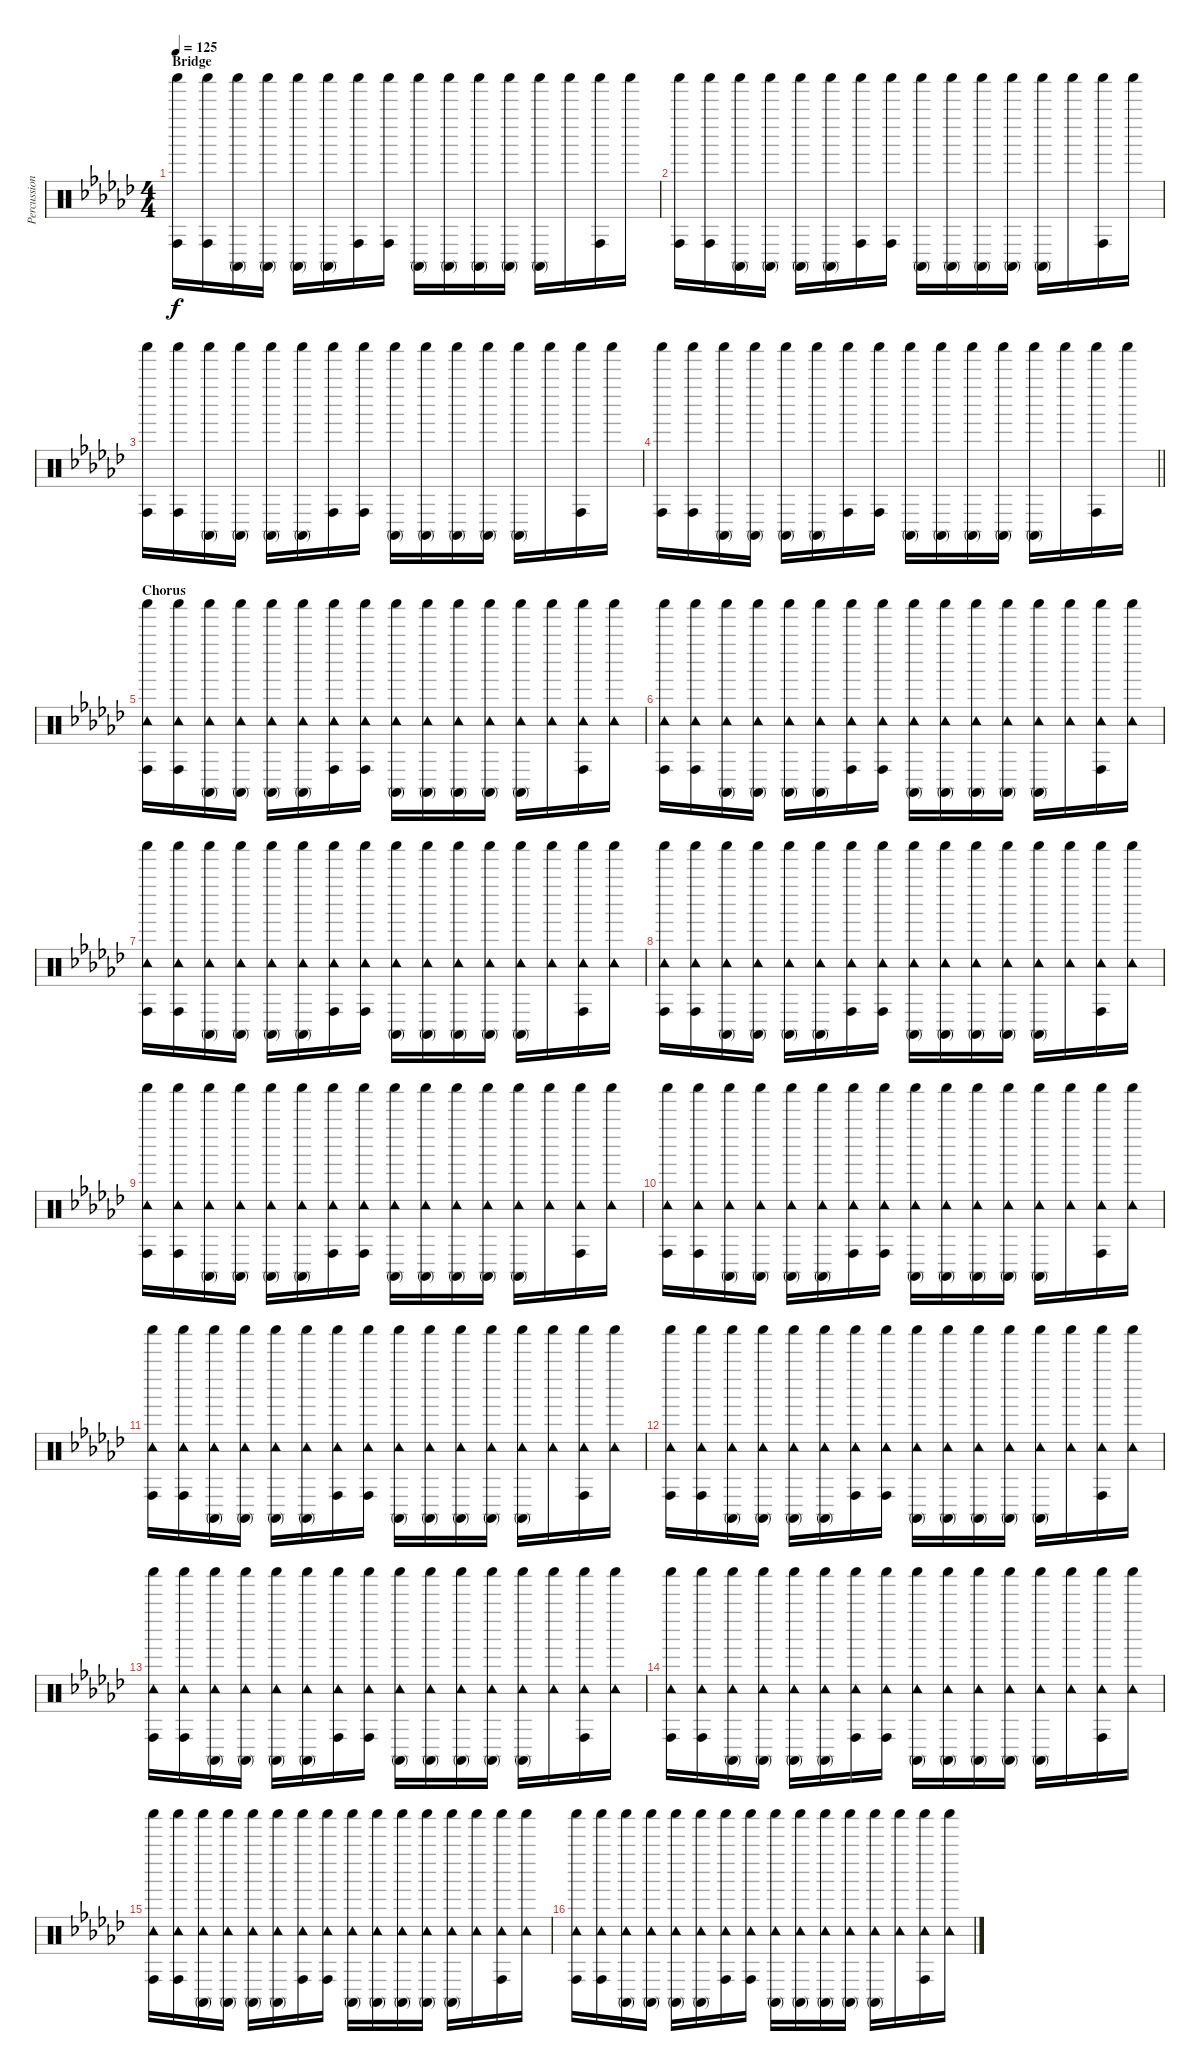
\track ("Percussion" "Percussion") {instrument percussion}
\staff {score}
\articulation defaults
\ts (4 4)
\section ("" "Bridge")
\tempo 125
\clef neutral
\ks gb
("Shaker (hit)" "Conga high (hit)").16{dy f} ("Shaker (hit)" "Conga high (hit)").16 ("Shaker (hit)" "Conga high (mute)").16 ("Shaker (hit)" "Conga high (mute)").16 ("Shaker (hit)" "Conga high (mute)").16 ("Shaker (hit)" "Conga high (mute)").16 ("Shaker (hit)" "Conga high (hit)").16 ("Shaker (hit)" "Conga high (hit)").16 ("Shaker (hit)" "Conga high (mute)").16 ("Shaker (hit)" "Conga high (mute)").16 ("Shaker (hit)" "Conga high (mute)").16 ("Shaker (hit)" "Conga high (mute)").16 ("Shaker (hit)" "Conga high (mute)").16 "Shaker (hit)".16 ("Shaker (hit)" "Conga high (hit)").16 "Shaker (hit)".16 |
("Shaker (hit)" "Conga high (hit)").16 ("Shaker (hit)" "Conga high (hit)").16 ("Shaker (hit)" "Conga high (mute)").16 ("Shaker (hit)" "Conga high (mute)").16 ("Shaker (hit)" "Conga high (mute)").16 ("Shaker (hit)" "Conga high (mute)").16 ("Shaker (hit)" "Conga high (hit)").16 ("Shaker (hit)" "Conga high (hit)").16 ("Shaker (hit)" "Conga high (mute)").16 ("Shaker (hit)" "Conga high (mute)").16 ("Shaker (hit)" "Conga high (mute)").16 ("Shaker (hit)" "Conga high (mute)").16 ("Shaker (hit)" "Conga high (mute)").16 "Shaker (hit)".16 ("Shaker (hit)" "Conga high (hit)").16 "Shaker (hit)".16 |
("Shaker (hit)" "Conga high (hit)").16 ("Shaker (hit)" "Conga high (hit)").16 ("Shaker (hit)" "Conga high (mute)").16 ("Shaker (hit)" "Conga high (mute)").16 ("Shaker (hit)" "Conga high (mute)").16 ("Shaker (hit)" "Conga high (mute)").16 ("Shaker (hit)" "Conga high (hit)").16 ("Shaker (hit)" "Conga high (hit)").16 ("Shaker (hit)" "Conga high (mute)").16 ("Shaker (hit)" "Conga high (mute)").16 ("Shaker (hit)" "Conga high (mute)").16 ("Shaker (hit)" "Conga high (mute)").16 ("Shaker (hit)" "Conga high (mute)").16 "Shaker (hit)".16 ("Shaker (hit)" "Conga high (hit)").16 "Shaker (hit)".16 |
\barLineRight lightlight
("Shaker (hit)" "Conga high (hit)").16 ("Shaker (hit)" "Conga high (hit)").16 ("Shaker (hit)" "Conga high (mute)").16 ("Shaker (hit)" "Conga high (mute)").16 ("Shaker (hit)" "Conga high (mute)").16 ("Shaker (hit)" "Conga high (mute)").16 ("Shaker (hit)" "Conga high (hit)").16 ("Shaker (hit)" "Conga high (hit)").16 ("Shaker (hit)" "Conga high (mute)").16 ("Shaker (hit)" "Conga high (mute)").16 ("Shaker (hit)" "Conga high (mute)").16 ("Shaker (hit)" "Conga high (mute)").16 ("Shaker (hit)" "Conga high (mute)").16 "Shaker (hit)".16 ("Shaker (hit)" "Conga high (hit)").16 "Shaker (hit)".16 |
\section ("" "Chorus")
("Shaker (hit)" "Tambourine (hit)" "Conga high (hit)").16 ("Shaker (hit)" "Tambourine (hit)" "Conga high (hit)").16 ("Shaker (hit)" "Tambourine (hit)" "Conga high (mute)").16 ("Shaker (hit)" "Tambourine (hit)" "Conga high (mute)").16 ("Shaker (hit)" "Tambourine (hit)" "Conga high (mute)").16 ("Shaker (hit)" "Tambourine (hit)" "Conga high (mute)").16 ("Shaker (hit)" "Tambourine (hit)" "Conga high (hit)").16 ("Shaker (hit)" "Tambourine (hit)" "Conga high (hit)").16 ("Shaker (hit)" "Tambourine (hit)" "Conga high (mute)").16 ("Shaker (hit)" "Tambourine (hit)" "Conga high (mute)").16 ("Shaker (hit)" "Tambourine (hit)" "Conga high (mute)").16 ("Shaker (hit)" "Tambourine (hit)" "Conga high (mute)").16 ("Shaker (hit)" "Tambourine (hit)" "Conga high (mute)").16 ("Shaker (hit)" "Tambourine (hit)").16 ("Shaker (hit)" "Tambourine (hit)" "Conga high (hit)").16 ("Shaker (hit)" "Tambourine (hit)").16 |
("Shaker (hit)" "Tambourine (hit)" "Conga high (hit)").16 ("Shaker (hit)" "Tambourine (hit)" "Conga high (hit)").16 ("Shaker (hit)" "Tambourine (hit)" "Conga high (mute)").16 ("Shaker (hit)" "Tambourine (hit)" "Conga high (mute)").16 ("Shaker (hit)" "Tambourine (hit)" "Conga high (mute)").16 ("Shaker (hit)" "Tambourine (hit)" "Conga high (mute)").16 ("Shaker (hit)" "Tambourine (hit)" "Conga high (hit)").16 ("Shaker (hit)" "Tambourine (hit)" "Conga high (hit)").16 ("Shaker (hit)" "Tambourine (hit)" "Conga high (mute)").16 ("Shaker (hit)" "Tambourine (hit)" "Conga high (mute)").16 ("Shaker (hit)" "Tambourine (hit)" "Conga high (mute)").16 ("Shaker (hit)" "Tambourine (hit)" "Conga high (mute)").16 ("Shaker (hit)" "Tambourine (hit)" "Conga high (mute)").16 ("Shaker (hit)" "Tambourine (hit)").16 ("Shaker (hit)" "Tambourine (hit)" "Conga high (hit)").16 ("Shaker (hit)" "Tambourine (hit)").16 |
("Shaker (hit)" "Tambourine (hit)" "Conga high (hit)").16 ("Shaker (hit)" "Tambourine (hit)" "Conga high (hit)").16 ("Shaker (hit)" "Tambourine (hit)" "Conga high (mute)").16 ("Shaker (hit)" "Tambourine (hit)" "Conga high (mute)").16 ("Shaker (hit)" "Tambourine (hit)" "Conga high (mute)").16 ("Shaker (hit)" "Tambourine (hit)" "Conga high (mute)").16 ("Shaker (hit)" "Tambourine (hit)" "Conga high (hit)").16 ("Shaker (hit)" "Tambourine (hit)" "Conga high (hit)").16 ("Shaker (hit)" "Tambourine (hit)" "Conga high (mute)").16 ("Shaker (hit)" "Tambourine (hit)" "Conga high (mute)").16 ("Shaker (hit)" "Tambourine (hit)" "Conga high (mute)").16 ("Shaker (hit)" "Tambourine (hit)" "Conga high (mute)").16 ("Shaker (hit)" "Tambourine (hit)" "Conga high (mute)").16 ("Shaker (hit)" "Tambourine (hit)").16 ("Shaker (hit)" "Tambourine (hit)" "Conga high (hit)").16 ("Shaker (hit)" "Tambourine (hit)").16 |
("Shaker (hit)" "Tambourine (hit)" "Conga high (hit)").16 ("Shaker (hit)" "Tambourine (hit)" "Conga high (hit)").16 ("Shaker (hit)" "Tambourine (hit)" "Conga high (mute)").16 ("Shaker (hit)" "Tambourine (hit)" "Conga high (mute)").16 ("Shaker (hit)" "Tambourine (hit)" "Conga high (mute)").16 ("Shaker (hit)" "Tambourine (hit)" "Conga high (mute)").16 ("Shaker (hit)" "Tambourine (hit)" "Conga high (hit)").16 ("Shaker (hit)" "Tambourine (hit)" "Conga high (hit)").16 ("Shaker (hit)" "Tambourine (hit)" "Conga high (mute)").16 ("Shaker (hit)" "Tambourine (hit)" "Conga high (mute)").16 ("Shaker (hit)" "Tambourine (hit)" "Conga high (mute)").16 ("Shaker (hit)" "Tambourine (hit)" "Conga high (mute)").16 ("Shaker (hit)" "Tambourine (hit)" "Conga high (mute)").16 ("Shaker (hit)" "Tambourine (hit)").16 ("Shaker (hit)" "Tambourine (hit)" "Conga high (hit)").16 ("Shaker (hit)" "Tambourine (hit)").16 |
("Shaker (hit)" "Tambourine (hit)" "Conga high (hit)").16 ("Shaker (hit)" "Tambourine (hit)" "Conga high (hit)").16 ("Shaker (hit)" "Tambourine (hit)" "Conga high (mute)").16 ("Shaker (hit)" "Tambourine (hit)" "Conga high (mute)").16 ("Shaker (hit)" "Tambourine (hit)" "Conga high (mute)").16 ("Shaker (hit)" "Tambourine (hit)" "Conga high (mute)").16 ("Shaker (hit)" "Tambourine (hit)" "Conga high (hit)").16 ("Shaker (hit)" "Tambourine (hit)" "Conga high (hit)").16 ("Shaker (hit)" "Tambourine (hit)" "Conga high (mute)").16 ("Shaker (hit)" "Tambourine (hit)" "Conga high (mute)").16 ("Shaker (hit)" "Tambourine (hit)" "Conga high (mute)").16 ("Shaker (hit)" "Tambourine (hit)" "Conga high (mute)").16 ("Shaker (hit)" "Tambourine (hit)" "Conga high (mute)").16 ("Shaker (hit)" "Tambourine (hit)").16 ("Shaker (hit)" "Tambourine (hit)" "Conga high (hit)").16 ("Shaker (hit)" "Tambourine (hit)").16 |
("Shaker (hit)" "Tambourine (hit)" "Conga high (hit)").16 ("Shaker (hit)" "Tambourine (hit)" "Conga high (hit)").16 ("Shaker (hit)" "Tambourine (hit)" "Conga high (mute)").16 ("Shaker (hit)" "Tambourine (hit)" "Conga high (mute)").16 ("Shaker (hit)" "Tambourine (hit)" "Conga high (mute)").16 ("Shaker (hit)" "Tambourine (hit)" "Conga high (mute)").16 ("Shaker (hit)" "Tambourine (hit)" "Conga high (hit)").16 ("Shaker (hit)" "Tambourine (hit)" "Conga high (hit)").16 ("Shaker (hit)" "Tambourine (hit)" "Conga high (mute)").16 ("Shaker (hit)" "Tambourine (hit)" "Conga high (mute)").16 ("Shaker (hit)" "Tambourine (hit)" "Conga high (mute)").16 ("Shaker (hit)" "Tambourine (hit)" "Conga high (mute)").16 ("Shaker (hit)" "Tambourine (hit)" "Conga high (mute)").16 ("Shaker (hit)" "Tambourine (hit)").16 ("Shaker (hit)" "Tambourine (hit)" "Conga high (hit)").16 ("Shaker (hit)" "Tambourine (hit)").16 |
("Shaker (hit)" "Tambourine (hit)" "Conga high (hit)").16 ("Shaker (hit)" "Tambourine (hit)" "Conga high (hit)").16 ("Shaker (hit)" "Tambourine (hit)" "Conga high (mute)").16 ("Shaker (hit)" "Tambourine (hit)" "Conga high (mute)").16 ("Shaker (hit)" "Tambourine (hit)" "Conga high (mute)").16 ("Shaker (hit)" "Tambourine (hit)" "Conga high (mute)").16 ("Shaker (hit)" "Tambourine (hit)" "Conga high (hit)").16 ("Shaker (hit)" "Tambourine (hit)" "Conga high (hit)").16 ("Shaker (hit)" "Tambourine (hit)" "Conga high (mute)").16 ("Shaker (hit)" "Tambourine (hit)" "Conga high (mute)").16 ("Shaker (hit)" "Tambourine (hit)" "Conga high (mute)").16 ("Shaker (hit)" "Tambourine (hit)" "Conga high (mute)").16 ("Shaker (hit)" "Tambourine (hit)" "Conga high (mute)").16 ("Shaker (hit)" "Tambourine (hit)").16 ("Shaker (hit)" "Tambourine (hit)" "Conga high (hit)").16 ("Shaker (hit)" "Tambourine (hit)").16 |
("Shaker (hit)" "Tambourine (hit)" "Conga high (hit)").16 ("Shaker (hit)" "Tambourine (hit)" "Conga high (hit)").16 ("Shaker (hit)" "Tambourine (hit)" "Conga high (mute)").16 ("Shaker (hit)" "Tambourine (hit)" "Conga high (mute)").16 ("Shaker (hit)" "Tambourine (hit)" "Conga high (mute)").16 ("Shaker (hit)" "Tambourine (hit)" "Conga high (mute)").16 ("Shaker (hit)" "Tambourine (hit)" "Conga high (hit)").16 ("Shaker (hit)" "Tambourine (hit)" "Conga high (hit)").16 ("Shaker (hit)" "Tambourine (hit)" "Conga high (mute)").16 ("Shaker (hit)" "Tambourine (hit)" "Conga high (mute)").16 ("Shaker (hit)" "Tambourine (hit)" "Conga high (mute)").16 ("Shaker (hit)" "Tambourine (hit)" "Conga high (mute)").16 ("Shaker (hit)" "Tambourine (hit)" "Conga high (mute)").16 ("Shaker (hit)" "Tambourine (hit)").16 ("Shaker (hit)" "Tambourine (hit)" "Conga high (hit)").16 ("Shaker (hit)" "Tambourine (hit)").16 |
("Shaker (hit)" "Tambourine (hit)" "Conga high (hit)").16 ("Shaker (hit)" "Tambourine (hit)" "Conga high (hit)").16 ("Shaker (hit)" "Tambourine (hit)" "Conga high (mute)").16 ("Shaker (hit)" "Tambourine (hit)" "Conga high (mute)").16 ("Shaker (hit)" "Tambourine (hit)" "Conga high (mute)").16 ("Shaker (hit)" "Tambourine (hit)" "Conga high (mute)").16 ("Shaker (hit)" "Tambourine (hit)" "Conga high (hit)").16 ("Shaker (hit)" "Tambourine (hit)" "Conga high (hit)").16 ("Shaker (hit)" "Tambourine (hit)" "Conga high (mute)").16 ("Shaker (hit)" "Tambourine (hit)" "Conga high (mute)").16 ("Shaker (hit)" "Tambourine (hit)" "Conga high (mute)").16 ("Shaker (hit)" "Tambourine (hit)" "Conga high (mute)").16 ("Shaker (hit)" "Tambourine (hit)" "Conga high (mute)").16 ("Shaker (hit)" "Tambourine (hit)").16 ("Shaker (hit)" "Tambourine (hit)" "Conga high (hit)").16 ("Shaker (hit)" "Tambourine (hit)").16 |
("Shaker (hit)" "Tambourine (hit)" "Conga high (hit)").16 ("Shaker (hit)" "Tambourine (hit)" "Conga high (hit)").16 ("Shaker (hit)" "Tambourine (hit)" "Conga high (mute)").16 ("Shaker (hit)" "Tambourine (hit)" "Conga high (mute)").16 ("Shaker (hit)" "Tambourine (hit)" "Conga high (mute)").16 ("Shaker (hit)" "Tambourine (hit)" "Conga high (mute)").16 ("Shaker (hit)" "Tambourine (hit)" "Conga high (hit)").16 ("Shaker (hit)" "Tambourine (hit)" "Conga high (hit)").16 ("Shaker (hit)" "Tambourine (hit)" "Conga high (mute)").16 ("Shaker (hit)" "Tambourine (hit)" "Conga high (mute)").16 ("Shaker (hit)" "Tambourine (hit)" "Conga high (mute)").16 ("Shaker (hit)" "Tambourine (hit)" "Conga high (mute)").16 ("Shaker (hit)" "Tambourine (hit)" "Conga high (mute)").16 ("Shaker (hit)" "Tambourine (hit)").16 ("Shaker (hit)" "Tambourine (hit)" "Conga high (hit)").16 ("Shaker (hit)" "Tambourine (hit)").16 |
("Shaker (hit)" "Tambourine (hit)" "Conga high (hit)").16 ("Shaker (hit)" "Tambourine (hit)" "Conga high (hit)").16 ("Shaker (hit)" "Tambourine (hit)" "Conga high (mute)").16 ("Shaker (hit)" "Tambourine (hit)" "Conga high (mute)").16 ("Shaker (hit)" "Tambourine (hit)" "Conga high (mute)").16 ("Shaker (hit)" "Tambourine (hit)" "Conga high (mute)").16 ("Shaker (hit)" "Tambourine (hit)" "Conga high (hit)").16 ("Shaker (hit)" "Tambourine (hit)" "Conga high (hit)").16 ("Shaker (hit)" "Tambourine (hit)" "Conga high (mute)").16 ("Shaker (hit)" "Tambourine (hit)" "Conga high (mute)").16 ("Shaker (hit)" "Tambourine (hit)" "Conga high (mute)").16 ("Shaker (hit)" "Tambourine (hit)" "Conga high (mute)").16 ("Shaker (hit)" "Tambourine (hit)" "Conga high (mute)").16 ("Shaker (hit)" "Tambourine (hit)").16 ("Shaker (hit)" "Tambourine (hit)" "Conga high (hit)").16 ("Shaker (hit)" "Tambourine (hit)").16 |
("Shaker (hit)" "Tambourine (hit)" "Conga high (hit)").16 ("Shaker (hit)" "Tambourine (hit)" "Conga high (hit)").16 ("Shaker (hit)" "Tambourine (hit)" "Conga high (mute)").16 ("Shaker (hit)" "Tambourine (hit)" "Conga high (mute)").16 ("Shaker (hit)" "Tambourine (hit)" "Conga high (mute)").16 ("Shaker (hit)" "Tambourine (hit)" "Conga high (mute)").16 ("Shaker (hit)" "Tambourine (hit)" "Conga high (hit)").16 ("Shaker (hit)" "Tambourine (hit)" "Conga high (hit)").16 ("Shaker (hit)" "Tambourine (hit)" "Conga high (mute)").16 ("Shaker (hit)" "Tambourine (hit)" "Conga high (mute)").16 ("Shaker (hit)" "Tambourine (hit)" "Conga high (mute)").16 ("Shaker (hit)" "Tambourine (hit)" "Conga high (mute)").16 ("Shaker (hit)" "Tambourine (hit)" "Conga high (mute)").16 ("Shaker (hit)" "Tambourine (hit)").16 ("Shaker (hit)" "Tambourine (hit)" "Conga high (hit)").16 ("Shaker (hit)" "Tambourine (hit)").16
